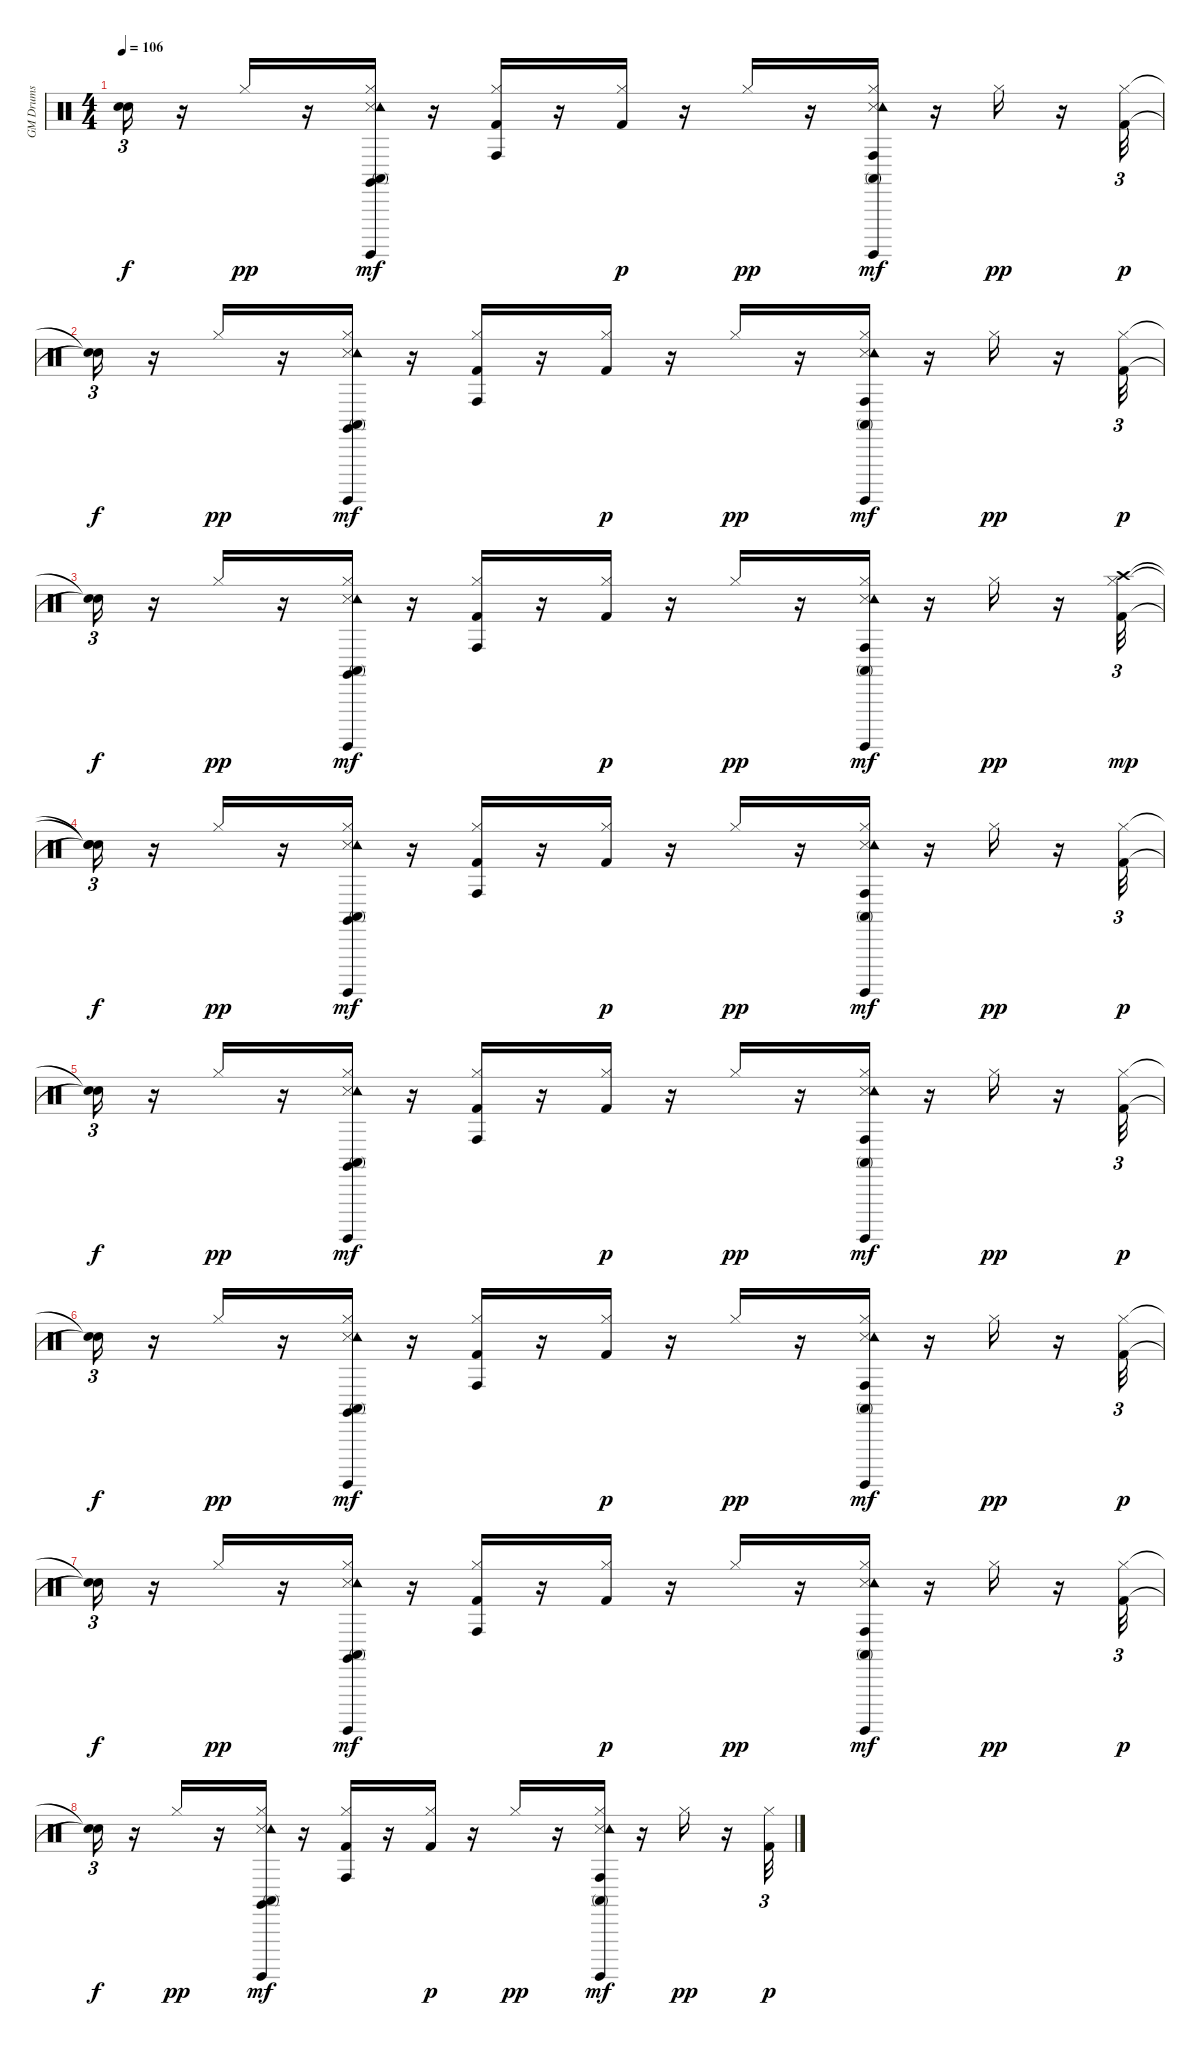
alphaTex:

\track ("GM Drums" "GM Drums") {instrument percussion}
\staff {score}
\articulation defaults
\ts (4 4)
\tempo 106
\clef neutral
\ks c
("Snare (hit)"{t} "Snare (hit)"{t}).16{tu (3 2) dy f} r.16 "Hi-Hat (closed)".16{dy pp} r.16 ("Snare (side stick) 3" "Hi-Hat (closed)" "Tambourine (hit)" "Conga high (mute)" "Claves (hit)" "Surdo (hit)").16{dy mf} r.16 ("Kick (hit) 2" "Hi-Hat (closed)" "Conga high (hit)").16 r.16 ("Kick (hit) 2" "Hi-Hat (closed)").16{dy p} r.16 "Hi-Hat (closed)".16{dy pp} r.16 ("Snare (side stick) 3" "Hi-Hat (closed)" "Tambourine (hit)" "Conga high (mute)" "Conga high (hit)" "Surdo (hit)").16{dy mf} r.16 "Hi-Hat (closed)".16{dy pp} r.16 ("Kick (hit) 2" "Hi-Hat (closed)").32{tu (3 2) dy p} |
("Snare (hit)"{t} "Snare (hit)"{t}).16{tu (3 2) dy f} r.16 "Hi-Hat (closed)".16{dy pp} r.16 ("Snare (side stick) 3" "Hi-Hat (closed)" "Tambourine (hit)" "Conga high (mute)" "Claves (hit)" "Surdo (hit)").16{dy mf} r.16 ("Kick (hit) 2" "Hi-Hat (closed)" "Conga high (hit)").16 r.16 ("Kick (hit) 2" "Hi-Hat (closed)").16{dy p} r.16 "Hi-Hat (closed)".16{dy pp} r.16 ("Snare (side stick) 3" "Hi-Hat (closed)" "Tambourine (hit)" "Conga high (mute)" "Conga high (hit)" "Surdo (hit)").16{dy mf} r.16 "Hi-Hat (closed)".16{dy pp} r.16 ("Kick (hit) 2" "Hi-Hat (closed)").32{tu (3 2) dy p} |
("Snare (hit)"{t} "Snare (hit)"{t}).16{tu (3 2) dy f} r.16 "Hi-Hat (closed)".16{dy pp} r.16 ("Snare (side stick) 3" "Hi-Hat (closed)" "Tambourine (hit)" "Conga high (mute)" "Claves (hit)" "Surdo (hit)").16{dy mf} r.16 ("Kick (hit) 2" "Hi-Hat (closed)" "Conga high (hit)").16 r.16 ("Kick (hit) 2" "Hi-Hat (closed)").16{dy p} r.16 "Hi-Hat (closed)".16{dy pp} r.16 ("Snare (side stick) 3" "Hi-Hat (closed)" "Tambourine (hit)" "Conga high (mute)" "Conga high (hit)" "Surdo (hit)").16{dy mf} r.16 "Hi-Hat (closed)".16{dy pp} r.16 ("Kick (hit) 2" "Hi-Hat (closed)" "Crash high (hit)").32{tu (3 2) dy mp} |
("Snare (hit)"{t} "Snare (hit)"{t} "Snare (hit)"{t}).16{tu (3 2) dy f} r.16 "Hi-Hat (closed)".16{dy pp} r.16 ("Snare (side stick) 3" "Hi-Hat (closed)" "Tambourine (hit)" "Conga high (mute)" "Claves (hit)" "Surdo (hit)").16{dy mf} r.16 ("Kick (hit) 2" "Hi-Hat (closed)" "Conga high (hit)").16 r.16 ("Kick (hit) 2" "Hi-Hat (closed)").16{dy p} r.16 "Hi-Hat (closed)".16{dy pp} r.16 ("Snare (side stick) 3" "Hi-Hat (closed)" "Tambourine (hit)" "Conga high (mute)" "Conga high (hit)" "Surdo (hit)").16{dy mf} r.16 "Hi-Hat (closed)".16{dy pp} r.16 ("Kick (hit) 2" "Hi-Hat (closed)").32{tu (3 2) dy p} |
("Snare (hit)"{t} "Snare (hit)"{t}).16{tu (3 2) dy f} r.16 "Hi-Hat (closed)".16{dy pp} r.16 ("Snare (side stick) 3" "Hi-Hat (closed)" "Tambourine (hit)" "Conga high (mute)" "Claves (hit)" "Surdo (hit)").16{dy mf} r.16 ("Kick (hit) 2" "Hi-Hat (closed)" "Conga high (hit)").16 r.16 ("Kick (hit) 2" "Hi-Hat (closed)").16{dy p} r.16 "Hi-Hat (closed)".16{dy pp} r.16 ("Snare (side stick) 3" "Hi-Hat (closed)" "Tambourine (hit)" "Conga high (mute)" "Conga high (hit)" "Surdo (hit)").16{dy mf} r.16 "Hi-Hat (closed)".16{dy pp} r.16 ("Kick (hit) 2" "Hi-Hat (closed)").32{tu (3 2) dy p} |
("Snare (hit)"{t} "Snare (hit)"{t}).16{tu (3 2) dy f} r.16 "Hi-Hat (closed)".16{dy pp} r.16 ("Snare (side stick) 3" "Hi-Hat (closed)" "Tambourine (hit)" "Conga high (mute)" "Claves (hit)" "Surdo (hit)").16{dy mf} r.16 ("Kick (hit) 2" "Hi-Hat (closed)" "Conga high (hit)").16 r.16 ("Kick (hit) 2" "Hi-Hat (closed)").16{dy p} r.16 "Hi-Hat (closed)".16{dy pp} r.16 ("Snare (side stick) 3" "Hi-Hat (closed)" "Tambourine (hit)" "Conga high (mute)" "Conga high (hit)" "Surdo (hit)").16{dy mf} r.16 "Hi-Hat (closed)".16{dy pp} r.16 ("Kick (hit) 2" "Hi-Hat (closed)").32{tu (3 2) dy p} |
("Snare (hit)"{t} "Snare (hit)"{t}).16{tu (3 2) dy f} r.16 "Hi-Hat (closed)".16{dy pp} r.16 ("Snare (side stick) 3" "Hi-Hat (closed)" "Tambourine (hit)" "Conga high (mute)" "Claves (hit)" "Surdo (hit)").16{dy mf} r.16 ("Kick (hit) 2" "Hi-Hat (closed)" "Conga high (hit)").16 r.16 ("Kick (hit) 2" "Hi-Hat (closed)").16{dy p} r.16 "Hi-Hat (closed)".16{dy pp} r.16 ("Snare (side stick) 3" "Hi-Hat (closed)" "Tambourine (hit)" "Conga high (mute)" "Conga high (hit)" "Surdo (hit)").16{dy mf} r.16 "Hi-Hat (closed)".16{dy pp} r.16 ("Kick (hit) 2" "Hi-Hat (closed)").32{tu (3 2) dy p} |
("Snare (hit)"{t} "Snare (hit)"{t}).16{tu (3 2) dy f} r.16 "Hi-Hat (closed)".16{dy pp} r.16 ("Snare (side stick) 3" "Hi-Hat (closed)" "Tambourine (hit)" "Conga high (mute)" "Claves (hit)" "Surdo (hit)").16{dy mf} r.16 ("Kick (hit) 2" "Hi-Hat (closed)" "Conga high (hit)").16 r.16 ("Kick (hit) 2" "Hi-Hat (closed)").16{dy p} r.16 "Hi-Hat (closed)".16{dy pp} r.16 ("Snare (side stick) 3" "Hi-Hat (closed)" "Tambourine (hit)" "Conga high (mute)" "Conga high (hit)" "Surdo (hit)").16{dy mf} r.16 "Hi-Hat (closed)".16{dy pp} r.16 ("Kick (hit) 2" "Hi-Hat (closed)").32{tu (3 2) dy p}
